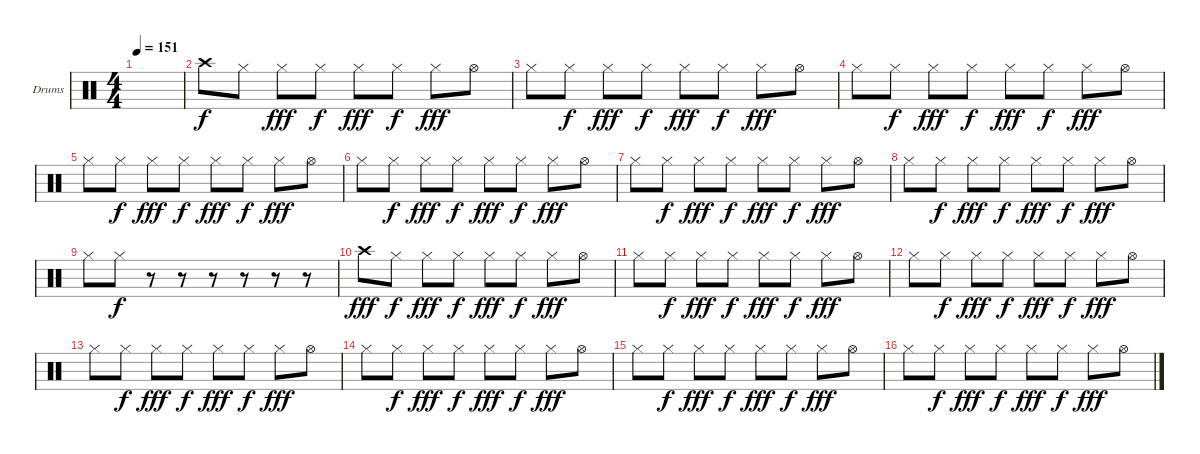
\defaultSystemsLayout 4
\bracketExtendMode groupsimilarinstruments
\firstSystemTrackNameOrientation horizontal
\otherSystemsTrackNameOrientation horizontal
\track ("Helders" "Drums") {instrument percussion}
\staff {score}
\articulation defaults
\ts (4 4)
\tempo 151
\clef neutral
\scale
0.472222
\ks c
|
\scale
0.263889 "Crash high (hit)".8 "Hi-Hat (closed)".8{dy f} "Hi-Hat (closed)".8{dy fff} "Hi-Hat (closed)".8{dy f} "Hi-Hat (closed)".8{dy fff} "Hi-Hat (closed)".8{dy f} "Hi-Hat (closed)".8{dy fff} "Hi-Hat (open)".8 |
\scale
0.263889 "Hi-Hat (closed)".8 "Hi-Hat (closed)".8{dy f} "Hi-Hat (closed)".8{dy fff} "Hi-Hat (closed)".8{dy f} "Hi-Hat (closed)".8{dy fff} "Hi-Hat (closed)".8{dy f} "Hi-Hat (closed)".8{dy fff} "Hi-Hat (open)".8 |
\scale
0.333333 "Hi-Hat (closed)".8 "Hi-Hat (closed)".8{dy f} "Hi-Hat (closed)".8{dy fff} "Hi-Hat (closed)".8{dy f} "Hi-Hat (closed)".8{dy fff} "Hi-Hat (closed)".8{dy f} "Hi-Hat (closed)".8{dy fff} "Hi-Hat (open)".8 |
\scale
0.333333 "Hi-Hat (closed)".8 "Hi-Hat (closed)".8{dy f} "Hi-Hat (closed)".8{dy fff} "Hi-Hat (closed)".8{dy f} "Hi-Hat (closed)".8{dy fff} "Hi-Hat (closed)".8{dy f} "Hi-Hat (closed)".8{dy fff} "Hi-Hat (open)".8 |
\scale
0.333333 "Hi-Hat (closed)".8 "Hi-Hat (closed)".8{dy f} "Hi-Hat (closed)".8{dy fff} "Hi-Hat (closed)".8{dy f} "Hi-Hat (closed)".8{dy fff} "Hi-Hat (closed)".8{dy f} "Hi-Hat (closed)".8{dy fff} "Hi-Hat (open)".8 |
\scale
0.333333 "Hi-Hat (closed)".8 "Hi-Hat (closed)".8{dy f} "Hi-Hat (closed)".8{dy fff} "Hi-Hat (closed)".8{dy f} "Hi-Hat (closed)".8{dy fff} "Hi-Hat (closed)".8{dy f} "Hi-Hat (closed)".8{dy fff} "Hi-Hat (open)".8 |
\scale
0.333333 "Hi-Hat (closed)".8 "Hi-Hat (closed)".8{dy f} "Hi-Hat (closed)".8{dy fff} "Hi-Hat (closed)".8{dy f} "Hi-Hat (closed)".8{dy fff} "Hi-Hat (closed)".8{dy f} "Hi-Hat (closed)".8{dy fff} "Hi-Hat (open)".8 |
\scale
0.333333 "Hi-Hat (closed)".8 "Hi-Hat (closed)".8{dy f} r.8 r.8 r.8 r.8 r.8 r.8 |
\scale
0.333333 "Crash high (hit)".8{dy fff} "Hi-Hat (closed)".8{dy f} "Hi-Hat (closed)".8{dy fff} "Hi-Hat (closed)".8{dy f} "Hi-Hat (closed)".8{dy fff} "Hi-Hat (closed)".8{dy f} "Hi-Hat (closed)".8{dy fff} "Hi-Hat (open)".8 |
\scale
0.333333 "Hi-Hat (closed)".8 "Hi-Hat (closed)".8{dy f} "Hi-Hat (closed)".8{dy fff} "Hi-Hat (closed)".8{dy f} "Hi-Hat (closed)".8{dy fff} "Hi-Hat (closed)".8{dy f} "Hi-Hat (closed)".8{dy fff} "Hi-Hat (open)".8 |
\scale
0.333333 "Hi-Hat (closed)".8 "Hi-Hat (closed)".8{dy f} "Hi-Hat (closed)".8{dy fff} "Hi-Hat (closed)".8{dy f} "Hi-Hat (closed)".8{dy fff} "Hi-Hat (closed)".8{dy f} "Hi-Hat (closed)".8{dy fff} "Hi-Hat (open)".8 |
\scale
0.333333 "Hi-Hat (closed)".8 "Hi-Hat (closed)".8{dy f} "Hi-Hat (closed)".8{dy fff} "Hi-Hat (closed)".8{dy f} "Hi-Hat (closed)".8{dy fff} "Hi-Hat (closed)".8{dy f} "Hi-Hat (closed)".8{dy fff} "Hi-Hat (open)".8 |
\scale
0.333333 "Hi-Hat (closed)".8 "Hi-Hat (closed)".8{dy f} "Hi-Hat (closed)".8{dy fff} "Hi-Hat (closed)".8{dy f} "Hi-Hat (closed)".8{dy fff} "Hi-Hat (closed)".8{dy f} "Hi-Hat (closed)".8{dy fff} "Hi-Hat (open)".8 |
\scale
0.333333 "Hi-Hat (closed)".8 "Hi-Hat (closed)".8{dy f} "Hi-Hat (closed)".8{dy fff} "Hi-Hat (closed)".8{dy f} "Hi-Hat (closed)".8{dy fff} "Hi-Hat (closed)".8{dy f} "Hi-Hat (closed)".8{dy fff} "Hi-Hat (open)".8 |
\scale
0.333333 "Hi-Hat (closed)".8 "Hi-Hat (closed)".8{dy f} "Hi-Hat (closed)".8{dy fff} "Hi-Hat (closed)".8{dy f} "Hi-Hat (closed)".8{dy fff} "Hi-Hat (closed)".8{dy f} "Hi-Hat (closed)".8{dy fff} "Hi-Hat (open)".8
